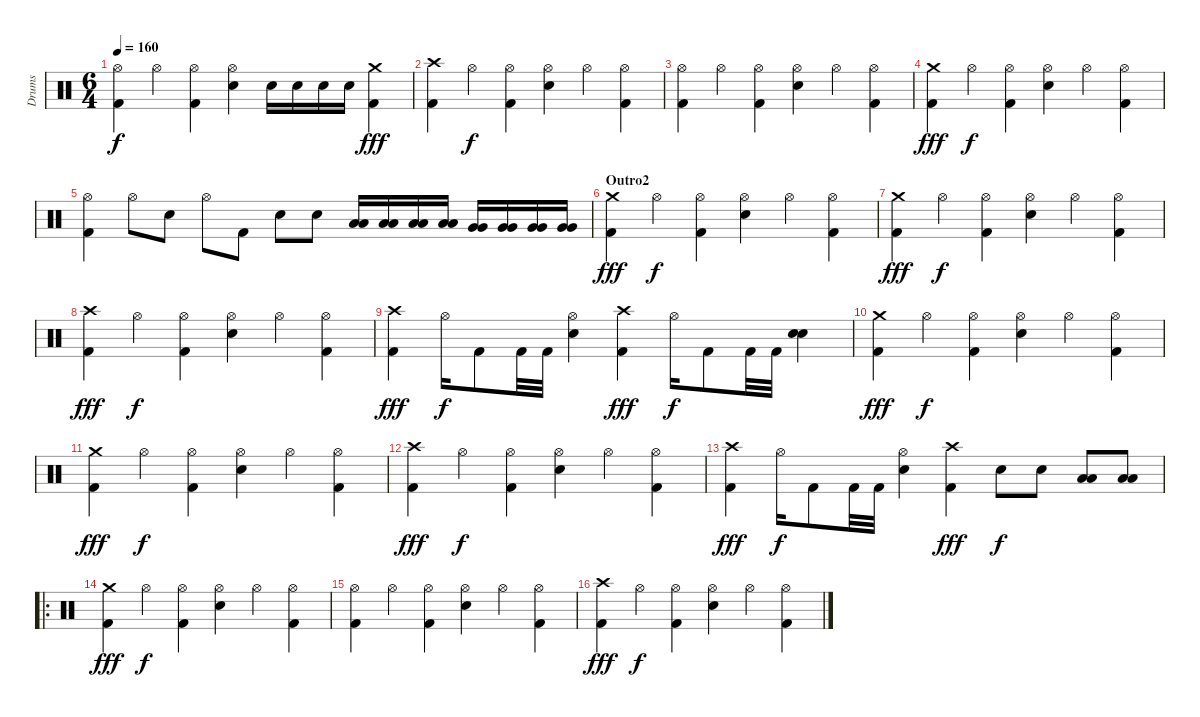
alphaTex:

\track ("Drums" "Drums") {instrument percussion}
\staff {score}
\articulation defaults
\ts (6 4)
\tempo 160
\clef neutral
\ks c
("Kick (hit) 2" "Hi-Hat (open)").4{dy f} "Hi-Hat (open)".4 ("Kick (hit) 2" "Hi-Hat (open)").4 ("Electric Snare (hit)" "Hi-Hat (open)").4 "Electric Snare (hit)".16 "Electric Snare (hit)".16 "Electric Snare (hit)".16 "Electric Snare (hit)".16 ("Kick (hit) 2" "Crash medium (hit)").4{dy fff} |
("Kick (hit) 2" "Crash high (hit)").4 "Hi-Hat (open)".4{dy f} ("Kick (hit) 2" "Hi-Hat (open)").4 ("Electric Snare (hit)" "Hi-Hat (open)").4 "Hi-Hat (open)".4 ("Kick (hit) 2" "Hi-Hat (open)").4 |
("Kick (hit) 2" "Hi-Hat (open)").4 "Hi-Hat (open)".4 ("Kick (hit) 2" "Hi-Hat (open)").4 ("Electric Snare (hit)" "Hi-Hat (open)").4 "Hi-Hat (open)".4 ("Kick (hit) 2" "Hi-Hat (open)").4 |
("Kick (hit) 2" "Crash medium (hit)").4{dy fff} "Hi-Hat (open)".4{dy f} ("Kick (hit) 2" "Hi-Hat (open)").4 ("Electric Snare (hit)" "Hi-Hat (open)").4 "Hi-Hat (open)".4 ("Kick (hit) 2" "Hi-Hat (open)").4 |
("Kick (hit) 2" "Hi-Hat (open)").4 "Hi-Hat (open)".8 "Electric Snare (hit)".8 "Hi-Hat (open)".8 "Kick (hit) 2".8 "Electric Snare (hit)".8 "Electric Snare (hit)".8 ("Low Tom (hit)" "Low Tom (hit)").16 ("Low Tom (hit)" "Low Tom (hit)").16 ("Low Tom (hit)" "Low Tom (hit)").16 ("Low Tom (hit)" "Low Tom (hit)").16 ("Very Low Tom (hit)" "Very Low Tom (hit)").16 ("Very Low Tom (hit)" "Very Low Tom (hit)").16 ("Very Low Tom (hit)" "Very Low Tom (hit)").16 ("Very Low Tom (hit)" "Very Low Tom (hit)").16 |
\section ("" "Outro2")
("Kick (hit) 2" "Crash medium (hit)").4{dy fff} "Hi-Hat (open)".4{dy f} ("Kick (hit) 2" "Hi-Hat (open)").4 ("Electric Snare (hit)" "Hi-Hat (open)").4 "Hi-Hat (open)".4 ("Kick (hit) 2" "Hi-Hat (open)").4 |
("Kick (hit) 2" "Crash medium (hit)").4{dy fff} "Hi-Hat (open)".4{dy f} ("Kick (hit) 2" "Hi-Hat (open)").4 ("Electric Snare (hit)" "Hi-Hat (open)").4 "Hi-Hat (open)".4 ("Kick (hit) 2" "Hi-Hat (open)").4 |
("Kick (hit) 2" "Crash high (hit)").4{dy fff} "Hi-Hat (open)".4{dy f} ("Kick (hit) 2" "Hi-Hat (open)").4 ("Electric Snare (hit)" "Hi-Hat (open)").4 "Hi-Hat (open)".4 ("Kick (hit) 2" "Hi-Hat (open)").4 |
("Kick (hit) 2" "Crash high (hit)").4{dy fff} "Hi-Hat (open)".16{dy f} "Kick (hit) 2".8 "Kick (hit) 2".32 "Kick (hit) 2".32 ("Electric Snare (hit)" "Hi-Hat (open)").4 ("Kick (hit) 2" "Crash high (hit)").4{dy fff} "Hi-Hat (open)".16{dy f} "Kick (hit) 2".8 "Kick (hit) 2".32 "Kick (hit) 2".32 ("Electric Snare (hit)" "Electric Snare (hit)").4 |
("Kick (hit) 2" "Crash medium (hit)").4{dy fff} "Hi-Hat (open)".4{dy f} ("Kick (hit) 2" "Hi-Hat (open)").4 ("Electric Snare (hit)" "Hi-Hat (open)").4 "Hi-Hat (open)".4 ("Kick (hit) 2" "Hi-Hat (open)").4 |
("Kick (hit) 2" "Crash medium (hit)").4{dy fff} "Hi-Hat (open)".4{dy f} ("Kick (hit) 2" "Hi-Hat (open)").4 ("Electric Snare (hit)" "Hi-Hat (open)").4 "Hi-Hat (open)".4 ("Kick (hit) 2" "Hi-Hat (open)").4 |
("Kick (hit) 2" "Crash high (hit)").4{dy fff} "Hi-Hat (open)".4{dy f} ("Kick (hit) 2" "Hi-Hat (open)").4 ("Electric Snare (hit)" "Hi-Hat (open)").4 "Hi-Hat (open)".4 ("Kick (hit) 2" "Hi-Hat (open)").4 |
("Kick (hit) 2" "Crash high (hit)").4{dy fff} "Hi-Hat (open)".16{dy f} "Kick (hit) 2".8 "Kick (hit) 2".32 "Kick (hit) 2".32 ("Electric Snare (hit)" "Hi-Hat (open)").4 ("Kick (hit) 2" "Crash high (hit)").4{dy fff} "Electric Snare (hit)".8{dy f} "Electric Snare (hit)".8 ("Low Tom (hit)" "Low Tom (hit)").8 ("Low Tom (hit)" "Low Tom (hit)").8 |
\ro
("Kick (hit) 2" "Crash medium (hit)").4{dy fff} "Hi-Hat (open)".4{dy f} ("Kick (hit) 2" "Hi-Hat (open)").4 ("Electric Snare (hit)" "Hi-Hat (open)").4 "Hi-Hat (open)".4 ("Kick (hit) 2" "Hi-Hat (open)").4 |
("Kick (hit) 2" "Hi-Hat (open)").4 "Hi-Hat (open)".4 ("Kick (hit) 2" "Hi-Hat (open)").4 ("Electric Snare (hit)" "Hi-Hat (open)").4 "Hi-Hat (open)".4 ("Kick (hit) 2" "Hi-Hat (open)").4 |
("Kick (hit) 2" "Crash high (hit)").4{dy fff} "Hi-Hat (open)".4{dy f} ("Kick (hit) 2" "Hi-Hat (open)").4 ("Electric Snare (hit)" "Hi-Hat (open)").4 "Hi-Hat (open)".4 ("Kick (hit) 2" "Hi-Hat (open)").4
